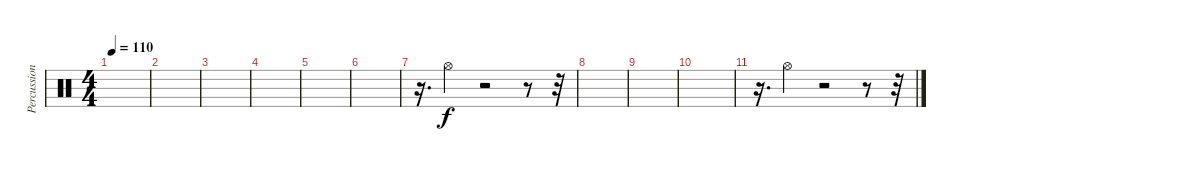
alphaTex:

\track ("Percussion" "Percussion") {instrument percussion}
\staff {score}
\articulation defaults
\ts (4 4)
\tempo 110
\clef neutral
\ks c
|
|
|
|
|
|
r.16{d} "Hi-Hat (open)".4 r.2 r.8 r.32 |
|
|
|
r.16{d} "Hi-Hat (open)".4 r.2 r.8 r.32
